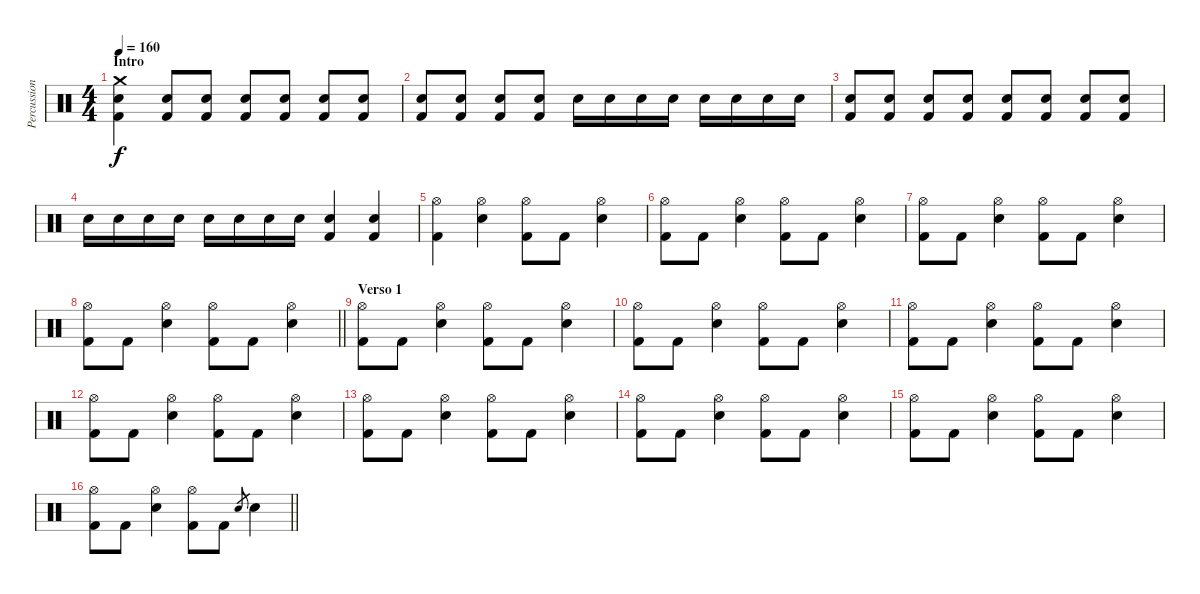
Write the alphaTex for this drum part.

\track ("Percussion" "Percussion") {instrument percussion}
\staff {score}
\articulation defaults
\ts (4 4)
\section ("" "Intro")
\tempo 160
\clef neutral
\ks c
("Crash medium (hit)" "Snare (hit) 2" "Kick (hit) 2").4{dy f} ("Snare (hit) 2" "Kick (hit) 2").8 ("Snare (hit) 2" "Kick (hit) 2").8 ("Snare (hit) 2" "Kick (hit) 2").8 ("Snare (hit) 2" "Kick (hit) 2").8 ("Snare (hit) 2" "Kick (hit) 2").8 ("Snare (hit) 2" "Kick (hit) 2").8 |
("Snare (hit) 2" "Kick (hit) 2").8 ("Snare (hit) 2" "Kick (hit) 2").8 ("Snare (hit) 2" "Kick (hit) 2").8 ("Snare (hit) 2" "Kick (hit) 2").8 "Snare (hit) 2".16 "Snare (hit) 2".16 "Snare (hit) 2".16 "Snare (hit) 2".16 "Snare (hit) 2".16 "Snare (hit) 2".16 "Snare (hit) 2".16 "Snare (hit) 2".16 |
("Snare (hit) 2" "Kick (hit) 2").8 ("Snare (hit) 2" "Kick (hit) 2").8 ("Snare (hit) 2" "Kick (hit) 2").8 ("Snare (hit) 2" "Kick (hit) 2").8 ("Snare (hit) 2" "Kick (hit) 2").8 ("Snare (hit) 2" "Kick (hit) 2").8 ("Snare (hit) 2" "Kick (hit) 2").8 ("Snare (hit) 2" "Kick (hit) 2").8 |
"Snare (hit) 2".16 "Snare (hit) 2".16 "Snare (hit) 2".16 "Snare (hit) 2".16 "Snare (hit) 2".16 "Snare (hit) 2".16 "Snare (hit) 2".16 "Snare (hit) 2".16 ("Snare (hit) 2" "Kick (hit) 2").4 ("Snare (hit) 2" "Kick (hit) 2").4 |
("Hi-Hat (open)" "Kick (hit) 2").4 ("Hi-Hat (open)" "Snare (hit) 2").4 ("Hi-Hat (open)" "Kick (hit) 2").8 "Kick (hit) 2".8 ("Hi-Hat (open)" "Snare (hit) 2").4 |
("Hi-Hat (open)" "Kick (hit) 2").8 "Kick (hit) 2".8 ("Hi-Hat (open)" "Snare (hit) 2").4 ("Hi-Hat (open)" "Kick (hit) 2").8 "Kick (hit) 2".8 ("Hi-Hat (open)" "Snare (hit) 2").4 |
("Hi-Hat (open)" "Kick (hit) 2").8 "Kick (hit) 2".8 ("Hi-Hat (open)" "Snare (hit) 2").4 ("Hi-Hat (open)" "Kick (hit) 2").8 "Kick (hit) 2".8 ("Hi-Hat (open)" "Snare (hit) 2").4 |
\barLineRight lightlight
("Hi-Hat (open)" "Kick (hit) 2").8 "Kick (hit) 2".8 ("Hi-Hat (open)" "Snare (hit) 2").4 ("Hi-Hat (open)" "Kick (hit) 2").8 "Kick (hit) 2".8 ("Hi-Hat (open)" "Snare (hit) 2").4 |
\section ("" "Verso 1")
("Hi-Hat (open)" "Kick (hit) 2").8 "Kick (hit) 2".8 ("Hi-Hat (open)" "Snare (hit) 2").4 ("Hi-Hat (open)" "Kick (hit) 2").8 "Kick (hit) 2".8 ("Hi-Hat (open)" "Snare (hit) 2").4 |
("Hi-Hat (open)" "Kick (hit) 2").8 "Kick (hit) 2".8 ("Hi-Hat (open)" "Snare (hit) 2").4 ("Hi-Hat (open)" "Kick (hit) 2").8 "Kick (hit) 2".8 ("Hi-Hat (open)" "Snare (hit) 2").4 |
("Hi-Hat (open)" "Kick (hit) 2").8 "Kick (hit) 2".8 ("Hi-Hat (open)" "Snare (hit) 2").4 ("Hi-Hat (open)" "Kick (hit) 2").8 "Kick (hit) 2".8 ("Hi-Hat (open)" "Snare (hit) 2").4 |
("Hi-Hat (open)" "Kick (hit) 2").8 "Kick (hit) 2".8 ("Hi-Hat (open)" "Snare (hit) 2").4 ("Hi-Hat (open)" "Kick (hit) 2").8 "Kick (hit) 2".8 ("Hi-Hat (open)" "Snare (hit) 2").4 |
("Hi-Hat (open)" "Kick (hit) 2").8 "Kick (hit) 2".8 ("Hi-Hat (open)" "Snare (hit) 2").4 ("Hi-Hat (open)" "Kick (hit) 2").8 "Kick (hit) 2".8 ("Hi-Hat (open)" "Snare (hit) 2").4 |
("Hi-Hat (open)" "Kick (hit) 2").8 "Kick (hit) 2".8 ("Hi-Hat (open)" "Snare (hit) 2").4 ("Hi-Hat (open)" "Kick (hit) 2").8 "Kick (hit) 2".8 ("Hi-Hat (open)" "Snare (hit) 2").4 |
("Hi-Hat (open)" "Kick (hit) 2").8 "Kick (hit) 2".8 ("Hi-Hat (open)" "Snare (hit) 2").4 ("Hi-Hat (open)" "Kick (hit) 2").8 "Kick (hit) 2".8 ("Hi-Hat (open)" "Snare (hit) 2").4 |
\barLineRight lightlight
("Hi-Hat (open)" "Kick (hit) 2").8 "Kick (hit) 2".8 ("Hi-Hat (open)" "Snare (hit) 2").4 ("Hi-Hat (open)" "Kick (hit) 2").8 "Kick (hit) 2".8 "Snare (hit) 2".8{gr} "Snare (hit) 2".4
